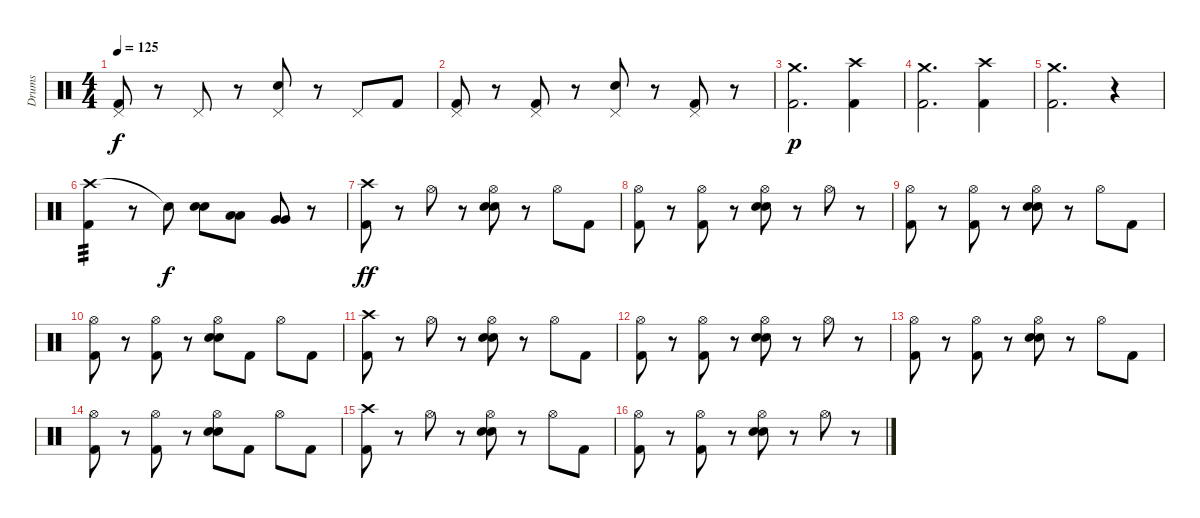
\track ("Drums" "Drums") {instrument percussion}
\staff {score}
\articulation defaults
\ts (4 4)
\tempo 125
\clef neutral
\ks c
("Pedal Hi-Hat (hit)" "Kick (hit) 2").8{dy f} r.8 "Pedal Hi-Hat (hit)".8 r.8 ("Pedal Hi-Hat (hit)" "Electric Snare (hit)").8 r.8 "Pedal Hi-Hat (hit)".8 "Kick (hit) 2".8 |
("Pedal Hi-Hat (hit)" "Kick (hit) 2").8 r.8 ("Pedal Hi-Hat (hit)" "Kick (hit) 2").8 r.8 ("Pedal Hi-Hat (hit)" "Electric Snare (hit)").8 r.8 ("Pedal Hi-Hat (hit)" "Kick (hit) 2").8 r.8 |
("Crash medium (hit)" "Kick (hit) 2").2{d dy p} ("Crash high (hit)" "Kick (hit) 2").4 |
("Crash medium (hit)" "Kick (hit) 2").2{d} ("Crash high (hit)" "Kick (hit) 2").4 |
("Crash medium (hit)" "Kick (hit) 2").2{d} r.4 |
("Crash high (hit)" "Kick (hit) 2").4{tp 3} r.8 "Snare (hit)"{t}.8{dy f} ("Electric Snare (hit)" "Electric Snare (hit)").8{bd 60} ("Low Tom (hit)" "Low Tom (hit)").8 ("Very Low Tom (hit)" "Very Low Tom (hit)").8 r.8 |
("Crash high (hit)" "Kick (hit) 2").8{dy ff} r.8 "Hi-Hat (open)".8 r.8 ("Hi-Hat (open)" "Electric Snare (hit)" "Electric Snare (hit)").8 r.8 "Hi-Hat (open)".8 "Kick (hit) 2".8 |
("Hi-Hat (open)" "Kick (hit) 2").8 r.8 ("Hi-Hat (open)" "Kick (hit) 2").8 r.8 ("Hi-Hat (open)" "Electric Snare (hit)" "Electric Snare (hit)").8 r.8 "Hi-Hat (open)".8 r.8 |
("Hi-Hat (open)" "Kick (hit) 2").8 r.8 ("Hi-Hat (open)" "Kick (hit) 2").8 r.8 ("Hi-Hat (open)" "Electric Snare (hit)" "Electric Snare (hit)").8 r.8 "Hi-Hat (open)".8 "Kick (hit) 2".8 |
("Hi-Hat (open)" "Kick (hit) 2").8 r.8 ("Hi-Hat (open)" "Kick (hit) 2").8 r.8 ("Hi-Hat (open)" "Electric Snare (hit)" "Electric Snare (hit)").8 "Kick (hit) 2".8 "Hi-Hat (open)".8 "Kick (hit) 2".8 |
("Crash high (hit)" "Kick (hit) 2").8 r.8 "Hi-Hat (open)".8 r.8 ("Hi-Hat (open)" "Electric Snare (hit)" "Electric Snare (hit)").8 r.8 "Hi-Hat (open)".8 "Kick (hit) 2".8 |
("Hi-Hat (open)" "Kick (hit) 2").8 r.8 ("Hi-Hat (open)" "Kick (hit) 2").8 r.8 ("Hi-Hat (open)" "Electric Snare (hit)" "Electric Snare (hit)").8 r.8 "Hi-Hat (open)".8 r.8 |
("Hi-Hat (open)" "Kick (hit) 2").8 r.8 ("Hi-Hat (open)" "Kick (hit) 2").8 r.8 ("Hi-Hat (open)" "Electric Snare (hit)" "Electric Snare (hit)").8 r.8 "Hi-Hat (open)".8 "Kick (hit) 2".8 |
("Hi-Hat (open)" "Kick (hit) 2").8 r.8 ("Hi-Hat (open)" "Kick (hit) 2").8 r.8 ("Hi-Hat (open)" "Electric Snare (hit)" "Electric Snare (hit)").8 "Kick (hit) 2".8 "Hi-Hat (open)".8 "Kick (hit) 2".8 |
("Crash high (hit)" "Kick (hit) 2").8 r.8 "Hi-Hat (open)".8 r.8 ("Hi-Hat (open)" "Electric Snare (hit)" "Electric Snare (hit)").8 r.8 "Hi-Hat (open)".8 "Kick (hit) 2".8 |
("Hi-Hat (open)" "Kick (hit) 2").8 r.8 ("Hi-Hat (open)" "Kick (hit) 2").8 r.8 ("Hi-Hat (open)" "Electric Snare (hit)" "Electric Snare (hit)").8 r.8 "Hi-Hat (open)".8 r.8
